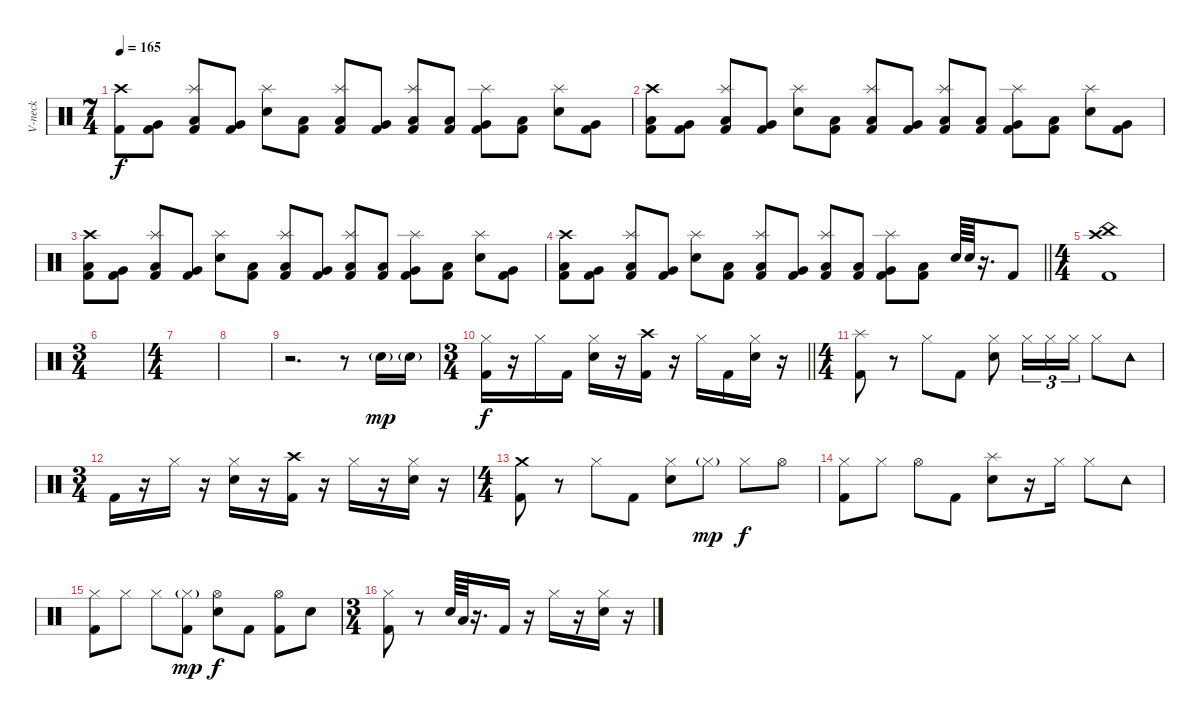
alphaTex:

\track ("V-neck" "V-neck") {instrument percussion}
\staff {score}
\articulation defaults
\ts (7 4)
\tempo 165
\clef neutral
\ks c
("Crash high (hit)" "Kick (hit) 2").8{dy f} ("Very Low Tom (hit)" "Kick (hit) 2").8 ("Splash (hit)" "Low Tom (hit)" "Kick (hit) 2").8 ("Very Low Tom (hit)" "Kick (hit) 2").8 ("Splash (hit)" "Electric Snare (hit)").8 ("Low Tom (hit)" "Kick (hit) 2").8 ("Splash (hit)" "Low Floor Tom (hit)" "Kick (hit) 2").8 ("Very Low Tom (hit)" "Kick (hit) 2").8 ("Splash (hit)" "Low Floor Tom (hit)" "Kick (hit) 2").8 ("Low Tom (hit)" "Kick (hit) 2").8 ("Splash (hit)" "Very Low Tom (hit)" "Kick (hit) 2").8 ("Low Floor Tom (hit)" "Kick (hit) 2").8 ("Splash (hit)" "Electric Snare (hit)").8 ("Very Low Tom (hit)" "Kick (hit) 2").8 |
("Crash high (hit)" "Low Tom (hit)" "Kick (hit) 2").8 ("Very Low Tom (hit)" "Kick (hit) 2").8 ("Splash (hit)" "Low Tom (hit)" "Kick (hit) 2").8 ("Very Low Tom (hit)" "Kick (hit) 2").8 ("Splash (hit)" "Electric Snare (hit)").8 ("Low Tom (hit)" "Kick (hit) 2").8 ("Splash (hit)" "Low Floor Tom (hit)" "Kick (hit) 2").8 ("Very Low Tom (hit)" "Kick (hit) 2").8 ("Splash (hit)" "Low Floor Tom (hit)" "Kick (hit) 2").8 ("Low Tom (hit)" "Kick (hit) 2").8 ("Splash (hit)" "Very Low Tom (hit)" "Kick (hit) 2").8 ("Low Floor Tom (hit)" "Kick (hit) 2").8 ("Splash (hit)" "Electric Snare (hit)").8 ("Very Low Tom (hit)" "Kick (hit) 2").8 |
("Crash high (hit)" "Low Tom (hit)" "Kick (hit) 2").8 ("Very Low Tom (hit)" "Kick (hit) 2").8 ("Splash (hit)" "Low Tom (hit)" "Kick (hit) 2").8 ("Very Low Tom (hit)" "Kick (hit) 2").8 ("Splash (hit)" "Electric Snare (hit)").8 ("Low Tom (hit)" "Kick (hit) 2").8 ("Splash (hit)" "Low Floor Tom (hit)" "Kick (hit) 2").8 ("Very Low Tom (hit)" "Kick (hit) 2").8 ("Splash (hit)" "Low Floor Tom (hit)" "Kick (hit) 2").8 ("Low Tom (hit)" "Kick (hit) 2").8 ("Splash (hit)" "Very Low Tom (hit)" "Kick (hit) 2").8 ("Low Floor Tom (hit)" "Kick (hit) 2").8 ("Splash (hit)" "Electric Snare (hit)").8 ("Very Low Tom (hit)" "Kick (hit) 2").8 |
\barLineRight lightlight
("Crash high (hit)" "Low Tom (hit)" "Kick (hit) 2").8 ("Very Low Tom (hit)" "Kick (hit) 2").8 ("Splash (hit)" "Low Tom (hit)" "Kick (hit) 2").8 ("Very Low Tom (hit)" "Kick (hit) 2").8 ("Splash (hit)" "Electric Snare (hit)").8 ("Low Tom (hit)" "Kick (hit) 2").8 ("Splash (hit)" "Low Floor Tom (hit)" "Kick (hit) 2").8 ("Very Low Tom (hit)" "Kick (hit) 2").8 ("Splash (hit)" "Low Floor Tom (hit)" "Kick (hit) 2").8 ("Low Tom (hit)" "Kick (hit) 2").8 ("Splash (hit)" "Very Low Tom (hit)" "Kick (hit) 2").8 ("Low Floor Tom (hit)" "Kick (hit) 2").8 "Electric Snare (hit)".64 "Electric Snare (hit)".64 r.16{d} "Kick (hit) 2".8 |
\ts (4 4)
\section ("" "")
("Crash high (hit)" "China (hit)" "Kick (hit) 2").1 |
\ts (3 4)
|
\ts (4 4)
|
|
r.2{d} r.8 "Electric Snare (hit)"{g}.16{dy mp} "Electric Snare (hit)"{g}.16 |
\ts (3 4)
\barLineRight lightlight
("Hi-Hat (closed)" "Kick (hit) 2").16{dy f} r.16 "Hi-Hat (closed)".16 "Kick (hit) 2".16 ("Hi-Hat (closed)" "Electric Snare (hit)").16 r.16 ("Crash high (hit)" "Kick (hit) 2").16 r.16 "Hi-Hat (closed)".16 "Kick (hit) 2".16 ("Hi-Hat (closed)" "Electric Snare (hit)").16 r.16 |
\ts (4 4)
\section ("" "")
("Splash (hit)" "Kick (hit) 2").8 r.8 "Hi-Hat (closed)".8 "Kick (hit) 2".8 ("Hi-Hat (closed)" "Electric Snare (hit)").8 "Hi-Hat (closed)".16{tu (3 2)} "Hi-Hat (closed)".16{tu (3 2)} "Hi-Hat (closed)".16{tu (3 2)} "Hi-Hat (closed)".8 "Tambourine (hit)".8 |
\ts (3 4)
"Kick (hit) 2".16 r.16 "Hi-Hat (closed)".16 r.16 ("Hi-Hat (closed)" "Electric Snare (hit)").16 r.16 ("Crash high (hit)" "Kick (hit) 2").16 r.16 "Hi-Hat (closed)".16 r.16 ("Hi-Hat (closed)" "Electric Snare (hit)").16 r.16 |
\ts (4 4)
("Crash medium (hit)" "Kick (hit) 2").8 r.8 "Hi-Hat (closed)".8 "Kick (hit) 2".8 ("Hi-Hat (closed)" "Electric Snare (hit)").8 "Hi-Hat (closed)"{g}.8{dy mp} "Hi-Hat (closed)".8{dy f} "Hi-Hat (open)".8 |
("Hi-Hat (closed)" "Kick (hit) 2").8 "Hi-Hat (closed)".8 "Hi-Hat (open)".8 "Kick (hit) 2".8 ("Splash (hit)" "Electric Snare (hit)").8 r.16 "Hi-Hat (closed)".16 "Hi-Hat (closed)".8 "Tambourine (hit)".8 |
("Hi-Hat (closed)" "Kick (hit) 2").8 "Hi-Hat (closed)".8 "Hi-Hat (closed)".8 ("Hi-Hat (closed)"{g} "Kick (hit) 2").8{dy mp} ("Hi-Hat (open)" "Electric Snare (hit)").8{dy f} "Kick (hit) 2".8 ("Hi-Hat (open)" "Kick (hit) 2").8 "Electric Snare (hit)".8 |
\ts (3 4)
("Hi-Hat (closed)" "Kick (hit) 2").8 r.8 "Electric Snare (hit)".64 "Low Tom (hit)".64 r.16{d} "Kick (hit) 2".16 r.16 "Hi-Hat (closed)".16 r.16 ("Hi-Hat (closed)" "Electric Snare (hit)").16 r.16
